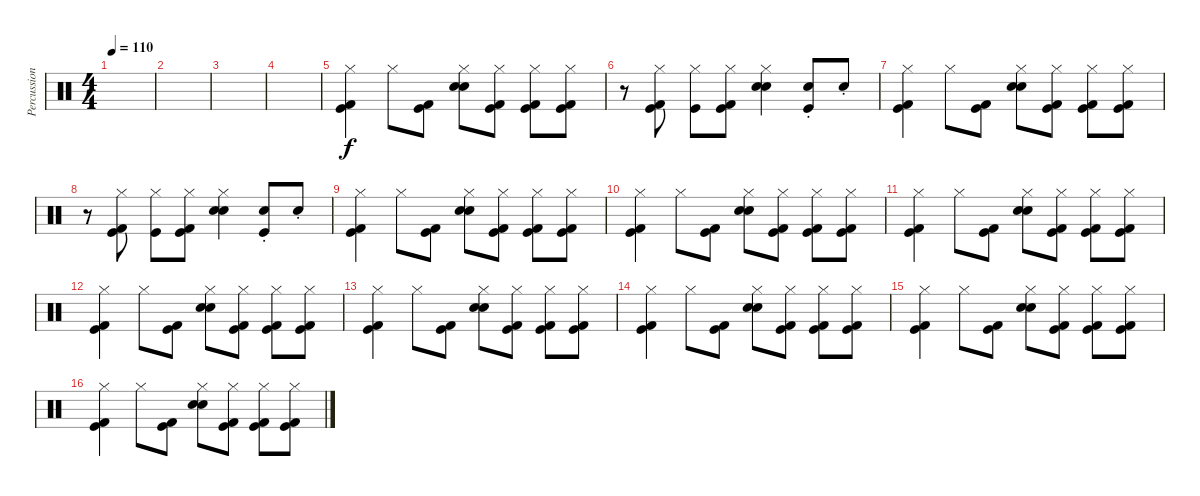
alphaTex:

\track ("Percussions" "Percussion") {instrument percussion}
\staff {score}
\articulation defaults
\ts (4 4)
\tempo 110
\clef neutral
\ks c
|
|
|
|
("Kick (hit) 2" "Kick (hit)" "Hi-Hat (closed)").4 "Hi-Hat (closed)".8 ("Kick (hit) 2" "Kick (hit)").8 ("Snare (hit) 2" "Hi-Hat (closed)" "Electric Snare (hit)").8 ("Kick (hit) 2" "Kick (hit)" "Hi-Hat (closed)").8 ("Kick (hit) 2" "Kick (hit)" "Hi-Hat (closed)").8 ("Kick (hit) 2" "Kick (hit)" "Hi-Hat (closed)").8 |
r.8 ("Kick (hit) 2" "Kick (hit)" "Hi-Hat (closed)").8 ("Kick (hit)" "Hi-Hat (closed)").8 ("Kick (hit) 2" "Kick (hit)" "Hi-Hat (closed)").8 ("Snare (hit) 2" "Hi-Hat (closed)" "Electric Snare (hit)").4 ("Kick (hit)" "Hand Clap (hit)"{st}).8 "Hand Clap (hit)"{st}.8 |
("Kick (hit) 2" "Kick (hit)" "Hi-Hat (closed)").4 "Hi-Hat (closed)".8 ("Kick (hit) 2" "Kick (hit)").8 ("Snare (hit) 2" "Hi-Hat (closed)" "Electric Snare (hit)").8 ("Kick (hit) 2" "Kick (hit)" "Hi-Hat (closed)").8 ("Kick (hit) 2" "Kick (hit)" "Hi-Hat (closed)").8 ("Kick (hit) 2" "Kick (hit)" "Hi-Hat (closed)").8 |
r.8 ("Kick (hit) 2" "Kick (hit)" "Hi-Hat (closed)").8 ("Kick (hit)" "Hi-Hat (closed)").8 ("Kick (hit) 2" "Kick (hit)" "Hi-Hat (closed)").8 ("Snare (hit) 2" "Hi-Hat (closed)" "Electric Snare (hit)").4 ("Kick (hit)" "Hand Clap (hit)"{st}).8 "Hand Clap (hit)"{st}.8 |
("Kick (hit) 2" "Kick (hit)" "Hi-Hat (closed)").4 "Hi-Hat (closed)".8 ("Kick (hit) 2" "Kick (hit)").8 ("Snare (hit) 2" "Hi-Hat (closed)" "Electric Snare (hit)").8 ("Kick (hit) 2" "Kick (hit)" "Hi-Hat (closed)").8 ("Kick (hit) 2" "Kick (hit)" "Hi-Hat (closed)").8 ("Kick (hit) 2" "Kick (hit)" "Hi-Hat (closed)").8 |
("Kick (hit) 2" "Kick (hit)" "Hi-Hat (closed)").4 "Hi-Hat (closed)".8 ("Kick (hit) 2" "Kick (hit)").8 ("Snare (hit) 2" "Hi-Hat (closed)" "Electric Snare (hit)").8 ("Kick (hit) 2" "Kick (hit)" "Hi-Hat (closed)").8 ("Kick (hit) 2" "Kick (hit)" "Hi-Hat (closed)").8 ("Kick (hit) 2" "Kick (hit)" "Hi-Hat (closed)").8 |
("Kick (hit) 2" "Kick (hit)" "Hi-Hat (closed)").4 "Hi-Hat (closed)".8 ("Kick (hit) 2" "Kick (hit)").8 ("Snare (hit) 2" "Hi-Hat (closed)" "Electric Snare (hit)").8 ("Kick (hit) 2" "Kick (hit)" "Hi-Hat (closed)").8 ("Kick (hit) 2" "Kick (hit)" "Hi-Hat (closed)").8 ("Kick (hit) 2" "Kick (hit)" "Hi-Hat (closed)").8 |
("Kick (hit) 2" "Kick (hit)" "Hi-Hat (closed)").4 "Hi-Hat (closed)".8 ("Kick (hit) 2" "Kick (hit)").8 ("Snare (hit) 2" "Hi-Hat (closed)" "Electric Snare (hit)").8 ("Kick (hit) 2" "Kick (hit)" "Hi-Hat (closed)").8 ("Kick (hit) 2" "Kick (hit)" "Hi-Hat (closed)").8 ("Kick (hit) 2" "Kick (hit)" "Hi-Hat (closed)").8 |
("Kick (hit) 2" "Kick (hit)" "Hi-Hat (closed)").4 "Hi-Hat (closed)".8 ("Kick (hit) 2" "Kick (hit)").8 ("Snare (hit) 2" "Hi-Hat (closed)" "Electric Snare (hit)").8 ("Kick (hit) 2" "Kick (hit)" "Hi-Hat (closed)").8 ("Kick (hit) 2" "Kick (hit)" "Hi-Hat (closed)").8 ("Kick (hit) 2" "Kick (hit)" "Hi-Hat (closed)").8 |
("Kick (hit) 2" "Kick (hit)" "Hi-Hat (closed)").4 "Hi-Hat (closed)".8 ("Kick (hit) 2" "Kick (hit)").8 ("Snare (hit) 2" "Hi-Hat (closed)" "Electric Snare (hit)").8 ("Kick (hit) 2" "Kick (hit)" "Hi-Hat (closed)").8 ("Kick (hit) 2" "Kick (hit)" "Hi-Hat (closed)").8 ("Kick (hit) 2" "Kick (hit)" "Hi-Hat (closed)").8 |
("Kick (hit) 2" "Kick (hit)" "Hi-Hat (closed)").4 "Hi-Hat (closed)".8 ("Kick (hit) 2" "Kick (hit)").8 ("Snare (hit) 2" "Hi-Hat (closed)" "Electric Snare (hit)").8 ("Kick (hit) 2" "Kick (hit)" "Hi-Hat (closed)").8 ("Kick (hit) 2" "Kick (hit)" "Hi-Hat (closed)").8 ("Kick (hit) 2" "Kick (hit)" "Hi-Hat (closed)").8 |
("Kick (hit) 2" "Kick (hit)" "Hi-Hat (closed)").4 "Hi-Hat (closed)".8 ("Kick (hit) 2" "Kick (hit)").8 ("Snare (hit) 2" "Hi-Hat (closed)" "Electric Snare (hit)").8 ("Kick (hit) 2" "Kick (hit)" "Hi-Hat (closed)").8 ("Kick (hit) 2" "Kick (hit)" "Hi-Hat (closed)").8 ("Kick (hit) 2" "Kick (hit)" "Hi-Hat (closed)").8
